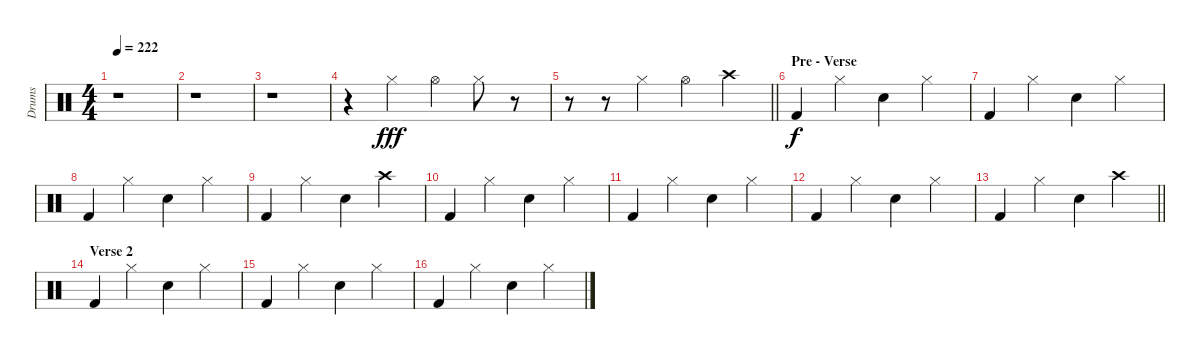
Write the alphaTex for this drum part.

\track ("Drums" "Drums") {instrument percussion}
\staff {score}
\articulation defaults
\ts (4 4)
\tempo 222
\clef neutral
\ks c
r.1{dy fff} |
r.1 |
r.1 |
r.4 "Hi-Hat (closed)".4 "Hi-Hat (open)".4 "Hi-Hat (closed)".8 r.8 |
\barLineRight lightlight
r.8 r.8 "Hi-Hat (closed)".4 "Hi-Hat (open)".4 "Crash high (hit)".4 |
\section ("" "Pre - Verse")
"Kick (hit) 2".4{dy f volume 16} "Hi-Hat (closed)".4 "Electric Snare (hit)".4 "Hi-Hat (closed)".4 |
"Kick (hit) 2".4 "Hi-Hat (closed)".4 "Electric Snare (hit)".4 "Hi-Hat (closed)".4 |
"Kick (hit) 2".4 "Hi-Hat (closed)".4 "Electric Snare (hit)".4 "Hi-Hat (closed)".4 |
"Kick (hit) 2".4 "Hi-Hat (closed)".4 "Electric Snare (hit)".4 "Crash high (hit)".4 |
"Kick (hit) 2".4 "Hi-Hat (closed)".4 "Electric Snare (hit)".4 "Hi-Hat (closed)".4 |
"Kick (hit) 2".4 "Hi-Hat (closed)".4 "Electric Snare (hit)".4 "Hi-Hat (closed)".4 |
"Kick (hit) 2".4 "Hi-Hat (closed)".4 "Electric Snare (hit)".4 "Hi-Hat (closed)".4 |
\barLineRight lightlight "Kick (hit) 2".4 "Hi-Hat (closed)".4 "Electric Snare (hit)".4 "Crash high (hit)".4
|
\section ("" "Verse 2")
"Kick (hit) 2".4{volume 16} "Hi-Hat (closed)".4 "Electric Snare (hit)".4 "Hi-Hat (closed)".4 |
"Kick (hit) 2".4 "Hi-Hat (closed)".4 "Electric Snare (hit)".4 "Hi-Hat (closed)".4 |
"Kick (hit) 2".4 "Hi-Hat (closed)".4 "Electric Snare (hit)".4 "Hi-Hat (closed)".4
